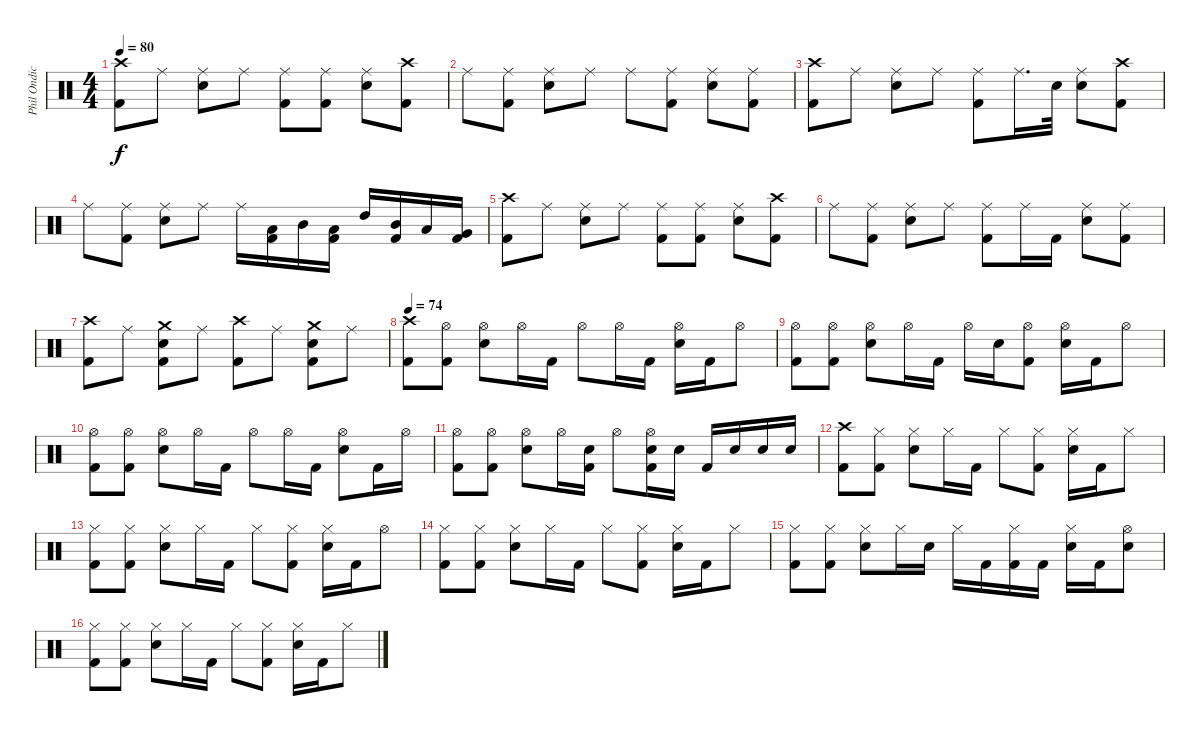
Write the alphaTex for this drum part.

\track ("Phil Ondich Drums" "Phil Ondic") {instrument percussion}
\staff {score}
\articulation defaults
\ts (4 4)
\tempo 80
\clef neutral
\ks c
("Crash high (hit)" "Kick (hit) 2").8{dy f} "Ride (middle)".8 ("Ride (middle)" "Snare (hit) 2").8 "Ride (middle)".8 ("Ride (middle)" "Kick (hit) 2").8 ("Ride (middle)" "Kick (hit) 2").8 ("Ride (middle)" "Snare (hit) 2").8 ("Crash high (hit)" "Kick (hit) 2").8 |
"Ride (middle)".8 ("Ride (middle)" "Kick (hit) 2").8 ("Ride (middle)" "Snare (hit) 2").8 "Ride (middle)".8 "Ride (middle)".8 ("Ride (middle)" "Kick (hit) 2").8 ("Ride (middle)" "Snare (hit) 2").8 ("Ride (middle)" "Kick (hit) 2").8 |
("Crash high (hit)" "Kick (hit) 2").8 "Ride (middle)".8 ("Ride (middle)" "Snare (hit) 2").8 "Ride (middle)".8 ("Ride (middle)" "Kick (hit) 2").8 "Ride (middle)".16{d} "Snare (hit) 2".32 ("Ride (middle)" "Snare (hit) 2").8 ("Crash high (hit)" "Kick (hit) 2").8 |
"Ride (middle)".8 ("Ride (middle)" "Kick (hit) 2").8 ("Ride (middle)" "Snare (hit) 2").8 "Ride (middle)".8 "Ride (middle)".16 ("Low Tom (hit)" "Kick (hit) 2").16 "Mid Tom (hit)".16 ("Low Tom (hit)" "Kick (hit) 2").16 "High Tom (hit)".16 ("Mid Tom (hit)" "Kick (hit) 2").16 "Low Tom (hit)".16 ("Very Low Tom (hit)" "Kick (hit) 2").16 |
("Crash high (hit)" "Kick (hit) 2").8 "Ride (middle)".8 ("Ride (middle)" "Snare (hit) 2").8 "Ride (middle)".8 ("Ride (middle)" "Kick (hit) 2").8 ("Ride (middle)" "Kick (hit) 2").8 ("Ride (middle)" "Snare (hit) 2").8 ("Crash high (hit)" "Kick (hit) 2").8 |
"Ride (middle)".8 ("Ride (middle)" "Kick (hit) 2").8 ("Ride (middle)" "Snare (hit) 2").8 "Ride (middle)".8 ("Ride (middle)" "Kick (hit) 2").8 "Ride (middle)".16 "Kick (hit) 2".16 ("Ride (middle)" "Snare (hit) 2").8 ("Ride (middle)" "Kick (hit) 2").8 |
("Crash high (hit)" "Kick (hit) 2").8 "Ride (middle)".8 ("Crash medium (hit)" "Snare (hit) 2" "Kick (hit) 2").8 "Ride (middle)".8 ("Crash high (hit)" "Kick (hit) 2").8 "Ride (middle)".8 ("Crash medium (hit)" "Snare (hit) 2" "Kick (hit) 2").8 "Ride (middle)".8 |
\tempo 74
("Crash high (hit)" "Kick (hit) 2").8 ("Hi-Hat (open)" "Kick (hit) 2").8 ("Hi-Hat (open)" "Snare (hit) 2").8 "Hi-Hat (open)".16 "Kick (hit) 2".16 "Hi-Hat (open)".8 "Hi-Hat (open)".16 "Kick (hit) 2".16 ("Hi-Hat (open)" "Snare (hit) 2").16 "Kick (hit) 2".16 "Hi-Hat (open)".8 |
("Hi-Hat (open)" "Kick (hit) 2").8 ("Hi-Hat (open)" "Kick (hit) 2").8 ("Hi-Hat (open)" "Snare (hit) 2").8 "Hi-Hat (open)".16 "Kick (hit) 2".16 "Hi-Hat (open)".16 "Snare (hit) 2".16 ("Hi-Hat (open)" "Kick (hit) 2").8 ("Hi-Hat (open)" "Snare (hit) 2").16 "Kick (hit) 2".16 "Hi-Hat (open)".8 |
("Hi-Hat (open)" "Kick (hit) 2").8 ("Hi-Hat (open)" "Kick (hit) 2").8 ("Hi-Hat (open)" "Snare (hit) 2").8 "Hi-Hat (open)".16 "Kick (hit) 2".16 "Hi-Hat (open)".8 "Hi-Hat (open)".16 "Kick (hit) 2".16 ("Hi-Hat (open)" "Snare (hit) 2").8 "Kick (hit) 2".16 "Hi-Hat (open)".16 |
("Hi-Hat (open)" "Kick (hit) 2").8 ("Hi-Hat (open)" "Kick (hit) 2").8 ("Hi-Hat (open)" "Snare (hit) 2").8 "Hi-Hat (open)".16 ("Snare (hit) 2" "Kick (hit) 2").16 "Hi-Hat (open)".8 ("Hi-Hat (open)" "Snare (hit) 2" "Kick (hit) 2").16 "Snare (hit) 2".16 "Kick (hit) 2".16 "Snare (hit) 2".16 "Snare (hit) 2".16 "Snare (hit) 2".16 |
("Crash high (hit)" "Kick (hit) 2").8 ("Hi-Hat (closed)" "Kick (hit) 2").8 ("Hi-Hat (closed)" "Snare (hit) 2").8 "Hi-Hat (closed)".16 "Kick (hit) 2".16 "Hi-Hat (closed)".8 ("Hi-Hat (closed)" "Kick (hit) 2").8 ("Hi-Hat (closed)" "Snare (hit) 2").16 "Kick (hit) 2".16 "Hi-Hat (closed)".8 |
("Hi-Hat (closed)" "Kick (hit) 2").8 ("Hi-Hat (closed)" "Kick (hit) 2").8 ("Hi-Hat (closed)" "Snare (hit) 2").8 "Hi-Hat (closed)".16 "Kick (hit) 2".16 "Hi-Hat (closed)".8 ("Hi-Hat (closed)" "Kick (hit) 2").8 ("Hi-Hat (closed)" "Snare (hit) 2").16 "Kick (hit) 2".16 "Hi-Hat (open)".8 |
("Hi-Hat (closed)" "Kick (hit) 2").8 ("Hi-Hat (closed)" "Kick (hit) 2").8 ("Hi-Hat (closed)" "Snare (hit) 2").8 "Hi-Hat (closed)".16 "Kick (hit) 2".16 "Hi-Hat (closed)".8 ("Hi-Hat (closed)" "Kick (hit) 2").8 ("Hi-Hat (closed)" "Snare (hit) 2").16 "Kick (hit) 2".16 "Hi-Hat (closed)".8 |
("Hi-Hat (closed)" "Kick (hit) 2").8 ("Hi-Hat (closed)" "Kick (hit) 2").8 ("Hi-Hat (closed)" "Snare (hit) 2").8 "Hi-Hat (closed)".16 "Snare (hit) 2".16 "Hi-Hat (closed)".16 "Kick (hit) 2".16 ("Hi-Hat (closed)" "Kick (hit) 2").16 "Kick (hit) 2".16 ("Hi-Hat (closed)" "Snare (hit) 2").16 "Kick (hit) 2".16 ("Hi-Hat (open)" "Snare (hit) 2").8 |
("Hi-Hat (closed)" "Kick (hit) 2").8 ("Hi-Hat (closed)" "Kick (hit) 2").8 ("Hi-Hat (closed)" "Snare (hit) 2").8 "Hi-Hat (closed)".16 "Kick (hit) 2".16 "Hi-Hat (closed)".8 ("Hi-Hat (closed)" "Kick (hit) 2").8 ("Hi-Hat (closed)" "Snare (hit) 2").16 "Kick (hit) 2".16 "Hi-Hat (closed)".8
